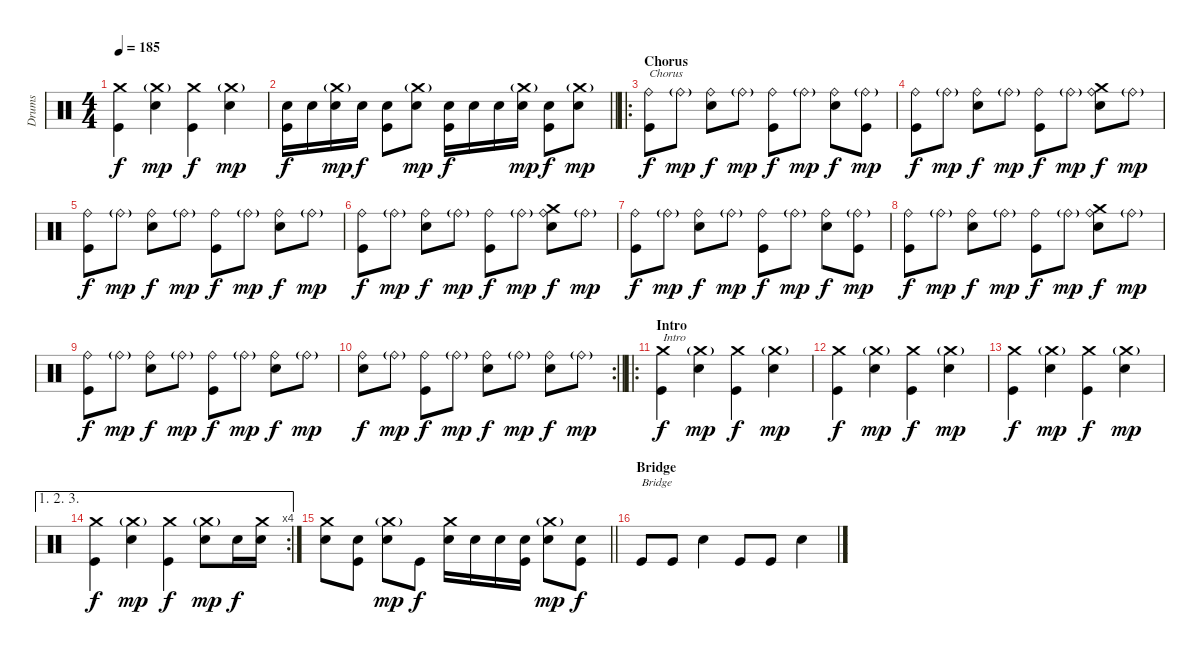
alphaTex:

\track ("Drums" "Drums") {instrument percussion}
\staff {score}
\articulation defaults
\ts (4 4)
\tempo 185
\clef neutral
\ks c
("Crash medium (hit)" "Kick (hit)").4{dy f} ("Crash medium (hit)"{g} "Snare (hit) 2").4{dy mp} ("Crash medium (hit)" "Kick (hit)").4{dy f} ("Crash medium (hit)"{g} "Snare (hit) 2").4{dy mp} |
\barLineRight lightlight
("Snare (hit) 2" "Kick (hit)").16{dy f} "Snare (hit) 2".16 ("Crash medium (hit)"{g} "Snare (hit) 2").16{dy mp} "Snare (hit) 2".16{dy f} ("Snare (hit) 2" "Kick (hit)").8 ("Crash medium (hit)"{g} "Snare (hit) 2").8{dy mp} ("Snare (hit) 2" "Kick (hit)").16{dy f} "Snare (hit) 2".16 "Snare (hit) 2".16 ("Crash medium (hit)"{g} "Snare (hit) 2").16{dy mp} ("Snare (hit) 2" "Kick (hit)").8{dy f} ("Crash medium (hit)"{g} "Snare (hit) 2").8{dy mp} |
\ro
\section ("" "Chorus")
("Ride (bell)" "Kick (hit)").8{txt "Chorus" dy f} "Ride (bell)"{g}.8{dy mp} ("Ride (bell)" "Snare (hit) 2").8{dy f} "Ride (bell)"{g}.8{dy mp} ("Ride (bell)" "Kick (hit)").8{dy f} "Ride (bell)"{g}.8{dy mp} ("Ride (bell)" "Snare (hit) 2").8{dy f} ("Ride (bell)"{g} "Kick (hit)").8{dy mp} |
("Ride (bell)" "Kick (hit)").8{dy f} "Ride (bell)"{g}.8{dy mp} ("Ride (bell)" "Snare (hit) 2").8{dy f} "Ride (bell)"{g}.8{dy mp} ("Ride (bell)" "Kick (hit)").8{dy f} "Ride (bell)"{g}.8{dy mp} ("Crash medium (hit)" "Ride (bell)" "Snare (hit) 2").8{dy f} "Ride (bell)"{g}.8{dy mp} |
("Ride (bell)" "Kick (hit)").8{dy f} "Ride (bell)"{g}.8{dy mp} ("Ride (bell)" "Snare (hit) 2").8{dy f} "Ride (bell)"{g}.8{dy mp} ("Ride (bell)" "Kick (hit)").8{dy f} "Ride (bell)"{g}.8{dy mp} ("Ride (bell)" "Snare (hit) 2").8{dy f} "Ride (bell)"{g}.8{dy mp} |
("Ride (bell)" "Kick (hit)").8{dy f} "Ride (bell)"{g}.8{dy mp} ("Ride (bell)" "Snare (hit) 2").8{dy f} "Ride (bell)"{g}.8{dy mp} ("Ride (bell)" "Kick (hit)").8{dy f} "Ride (bell)"{g}.8{dy mp} ("Crash medium (hit)" "Ride (bell)" "Snare (hit) 2").8{dy f} "Ride (bell)"{g}.8{dy mp} |
("Ride (bell)" "Kick (hit)").8{dy f} "Ride (bell)"{g}.8{dy mp} ("Ride (bell)" "Snare (hit) 2").8{dy f} "Ride (bell)"{g}.8{dy mp} ("Ride (bell)" "Kick (hit)").8{dy f} "Ride (bell)"{g}.8{dy mp} ("Ride (bell)" "Snare (hit) 2").8{dy f} ("Ride (bell)"{g} "Kick (hit)").8{dy mp} |
("Ride (bell)" "Kick (hit)").8{dy f} "Ride (bell)"{g}.8{dy mp} ("Ride (bell)" "Snare (hit) 2").8{dy f} "Ride (bell)"{g}.8{dy mp} ("Ride (bell)" "Kick (hit)").8{dy f} "Ride (bell)"{g}.8{dy mp} ("Crash medium (hit)" "Ride (bell)" "Snare (hit) 2").8{dy f} "Ride (bell)"{g}.8{dy mp} |
("Ride (bell)" "Kick (hit)").8{dy f} "Ride (bell)"{g}.8{dy mp} ("Ride (bell)" "Snare (hit) 2").8{dy f} "Ride (bell)"{g}.8{dy mp} ("Ride (bell)" "Kick (hit)").8{dy f} "Ride (bell)"{g}.8{dy mp} ("Ride (bell)" "Snare (hit) 2").8{dy f} "Ride (bell)"{g}.8{dy mp} |
\rc 2
\barLineRight lightlight
("Ride (bell)" "Snare (hit) 2").8{dy f} "Ride (bell)"{g}.8{dy mp} ("Ride (bell)" "Kick (hit)").8{dy f} "Ride (bell)"{g}.8{dy mp} ("Ride (bell)" "Snare (hit) 2").8{dy f} "Ride (bell)"{g}.8{dy mp} ("Ride (bell)" "Snare (hit) 2").8{dy f} "Ride (bell)"{g}.8{dy mp} |
\ro
\section ("" "Intro")
("Crash medium (hit)" "Kick (hit)").4{txt "Intro" dy f} ("Crash medium (hit)"{g} "Snare (hit) 2").4{dy mp} ("Crash medium (hit)" "Kick (hit)").4{dy f} ("Crash medium (hit)"{g} "Snare (hit) 2").4{dy mp} |
("Crash medium (hit)" "Kick (hit)").4{dy f} ("Crash medium (hit)"{g} "Snare (hit) 2").4{dy mp} ("Crash medium (hit)" "Kick (hit)").4{dy f} ("Crash medium (hit)"{g} "Snare (hit) 2").4{dy mp} |
("Crash medium (hit)" "Kick (hit)").4{dy f} ("Crash medium (hit)"{g} "Snare (hit) 2").4{dy mp} ("Crash medium (hit)" "Kick (hit)").4{dy f} ("Crash medium (hit)"{g} "Snare (hit) 2").4{dy mp} |
\ae (1 2 3)
\rc 4
("Crash medium (hit)" "Kick (hit)").4{dy f} ("Crash medium (hit)"{g} "Snare (hit) 2").4{dy mp} ("Crash medium (hit)" "Kick (hit)").4{dy f} ("Crash medium (hit)"{g} "Snare (hit) 2").8{dy mp} "Snare (hit) 2".16{dy f} ("Crash medium (hit)" "Snare (hit) 2").16 |
\barLineRight lightlight
("Crash medium (hit)" "Snare (hit) 2").8 ("Snare (hit) 2" "Kick (hit)").8 ("Crash medium (hit)"{g} "Snare (hit) 2").8{dy mp} "Kick (hit)".8{dy f} ("Crash medium (hit)" "Snare (hit) 2").16 "Snare (hit) 2".16 "Snare (hit) 2".16 ("Snare (hit) 2" "Kick (hit)").16 ("Crash medium (hit)"{g} "Snare (hit) 2").8{dy mp} ("Snare (hit) 2" "Kick (hit)").8{dy f} |
\section ("" "Bridge")
"Kick (hit)".8{txt "Bridge"} "Kick (hit)".8 "Snare (hit) 2".4 "Kick (hit)".8 "Kick (hit)".8 "Snare (hit) 2".4
